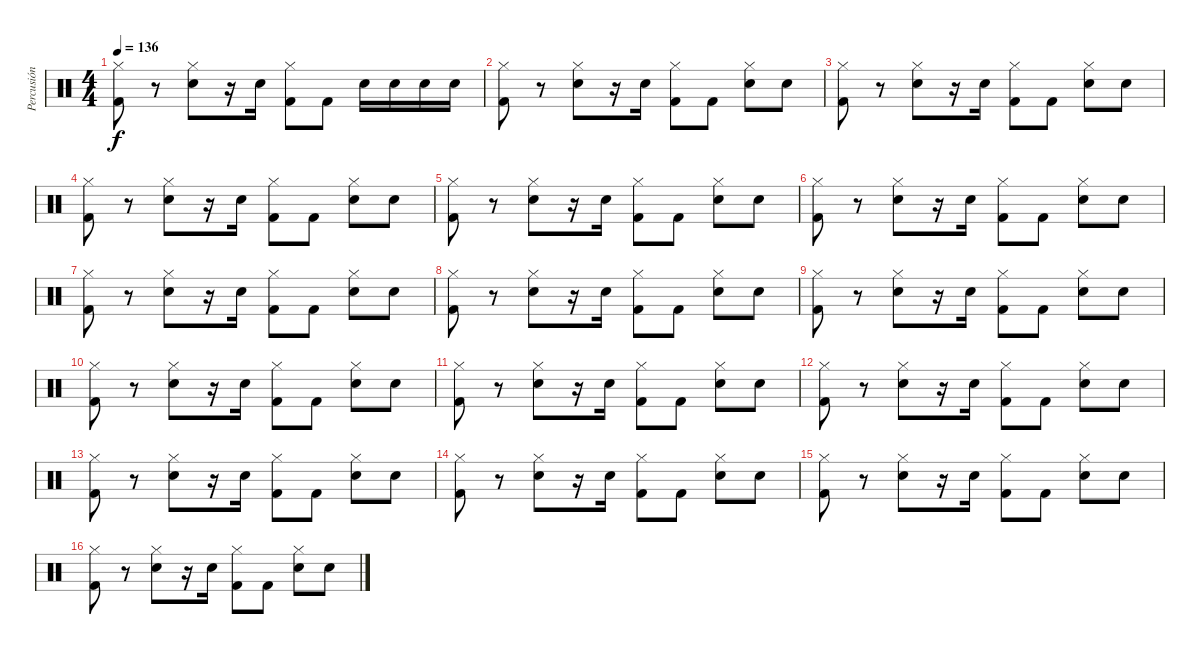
\track ("Percusión" "Percusión") {instrument percussion}
\staff {score}
\articulation defaults
\ts (4 4)
\tempo 136
\clef neutral
\ks c
("Hi-Hat (closed)" "Kick (hit) 2").8{dy f} r.8 ("Hi-Hat (closed)" "Electric Snare (hit)").8 r.16 "Electric Snare (hit)".16 ("Hi-Hat (closed)" "Kick (hit) 2").8 "Kick (hit) 2".8 "Electric Snare (hit)".16 "Electric Snare (hit)".16 "Electric Snare (hit)".16 "Electric Snare (hit)".16 |
("Hi-Hat (closed)" "Kick (hit) 2").8 r.8 ("Hi-Hat (closed)" "Electric Snare (hit)").8 r.16 "Electric Snare (hit)".16 ("Hi-Hat (closed)" "Kick (hit) 2").8 "Kick (hit) 2".8 ("Hi-Hat (closed)" "Electric Snare (hit)").8 "Electric Snare (hit)".8 |
("Hi-Hat (closed)" "Kick (hit) 2").8 r.8 ("Hi-Hat (closed)" "Electric Snare (hit)").8 r.16 "Electric Snare (hit)".16 ("Hi-Hat (closed)" "Kick (hit) 2").8 "Kick (hit) 2".8 ("Hi-Hat (closed)" "Electric Snare (hit)").8 "Electric Snare (hit)".8 |
("Hi-Hat (closed)" "Kick (hit) 2").8 r.8 ("Hi-Hat (closed)" "Electric Snare (hit)").8 r.16 "Electric Snare (hit)".16 ("Hi-Hat (closed)" "Kick (hit) 2").8 "Kick (hit) 2".8 ("Hi-Hat (closed)" "Electric Snare (hit)").8 "Electric Snare (hit)".8 |
("Hi-Hat (closed)" "Kick (hit) 2").8 r.8 ("Hi-Hat (closed)" "Electric Snare (hit)").8 r.16 "Electric Snare (hit)".16 ("Hi-Hat (closed)" "Kick (hit) 2").8 "Kick (hit) 2".8 ("Hi-Hat (closed)" "Electric Snare (hit)").8 "Electric Snare (hit)".8 |
("Hi-Hat (closed)" "Kick (hit) 2").8 r.8 ("Hi-Hat (closed)" "Electric Snare (hit)").8 r.16 "Electric Snare (hit)".16 ("Hi-Hat (closed)" "Kick (hit) 2").8 "Kick (hit) 2".8 ("Hi-Hat (closed)" "Electric Snare (hit)").8 "Electric Snare (hit)".8 |
("Hi-Hat (closed)" "Kick (hit) 2").8 r.8 ("Hi-Hat (closed)" "Electric Snare (hit)").8 r.16 "Electric Snare (hit)".16 ("Hi-Hat (closed)" "Kick (hit) 2").8 "Kick (hit) 2".8 ("Hi-Hat (closed)" "Electric Snare (hit)").8 "Electric Snare (hit)".8 |
("Hi-Hat (closed)" "Kick (hit) 2").8 r.8 ("Hi-Hat (closed)" "Electric Snare (hit)").8 r.16 "Electric Snare (hit)".16 ("Hi-Hat (closed)" "Kick (hit) 2").8 "Kick (hit) 2".8 ("Hi-Hat (closed)" "Electric Snare (hit)").8 "Electric Snare (hit)".8 |
("Hi-Hat (closed)" "Kick (hit) 2").8 r.8 ("Hi-Hat (closed)" "Electric Snare (hit)").8 r.16 "Electric Snare (hit)".16 ("Hi-Hat (closed)" "Kick (hit) 2").8 "Kick (hit) 2".8 ("Hi-Hat (closed)" "Electric Snare (hit)").8 "Electric Snare (hit)".8 |
("Hi-Hat (closed)" "Kick (hit) 2").8 r.8 ("Hi-Hat (closed)" "Electric Snare (hit)").8 r.16 "Electric Snare (hit)".16 ("Hi-Hat (closed)" "Kick (hit) 2").8 "Kick (hit) 2".8 ("Hi-Hat (closed)" "Electric Snare (hit)").8 "Electric Snare (hit)".8 |
("Hi-Hat (closed)" "Kick (hit) 2").8 r.8 ("Hi-Hat (closed)" "Electric Snare (hit)").8 r.16 "Electric Snare (hit)".16 ("Hi-Hat (closed)" "Kick (hit) 2").8 "Kick (hit) 2".8 ("Hi-Hat (closed)" "Electric Snare (hit)").8 "Electric Snare (hit)".8 |
("Hi-Hat (closed)" "Kick (hit) 2").8 r.8 ("Hi-Hat (closed)" "Electric Snare (hit)").8 r.16 "Electric Snare (hit)".16 ("Hi-Hat (closed)" "Kick (hit) 2").8 "Kick (hit) 2".8 ("Hi-Hat (closed)" "Electric Snare (hit)").8 "Electric Snare (hit)".8 |
("Hi-Hat (closed)" "Kick (hit) 2").8 r.8 ("Hi-Hat (closed)" "Electric Snare (hit)").8 r.16 "Electric Snare (hit)".16 ("Hi-Hat (closed)" "Kick (hit) 2").8 "Kick (hit) 2".8 ("Hi-Hat (closed)" "Electric Snare (hit)").8 "Electric Snare (hit)".8 |
("Hi-Hat (closed)" "Kick (hit) 2").8 r.8 ("Hi-Hat (closed)" "Electric Snare (hit)").8 r.16 "Electric Snare (hit)".16 ("Hi-Hat (closed)" "Kick (hit) 2").8 "Kick (hit) 2".8 ("Hi-Hat (closed)" "Electric Snare (hit)").8 "Electric Snare (hit)".8 |
("Hi-Hat (closed)" "Kick (hit) 2").8 r.8 ("Hi-Hat (closed)" "Electric Snare (hit)").8 r.16 "Electric Snare (hit)".16 ("Hi-Hat (closed)" "Kick (hit) 2").8 "Kick (hit) 2".8 ("Hi-Hat (closed)" "Electric Snare (hit)").8 "Electric Snare (hit)".8 |
("Hi-Hat (closed)" "Kick (hit) 2").8 r.8 ("Hi-Hat (closed)" "Electric Snare (hit)").8 r.16 "Electric Snare (hit)".16 ("Hi-Hat (closed)" "Kick (hit) 2").8 "Kick (hit) 2".8 ("Hi-Hat (closed)" "Electric Snare (hit)").8 "Electric Snare (hit)".8
